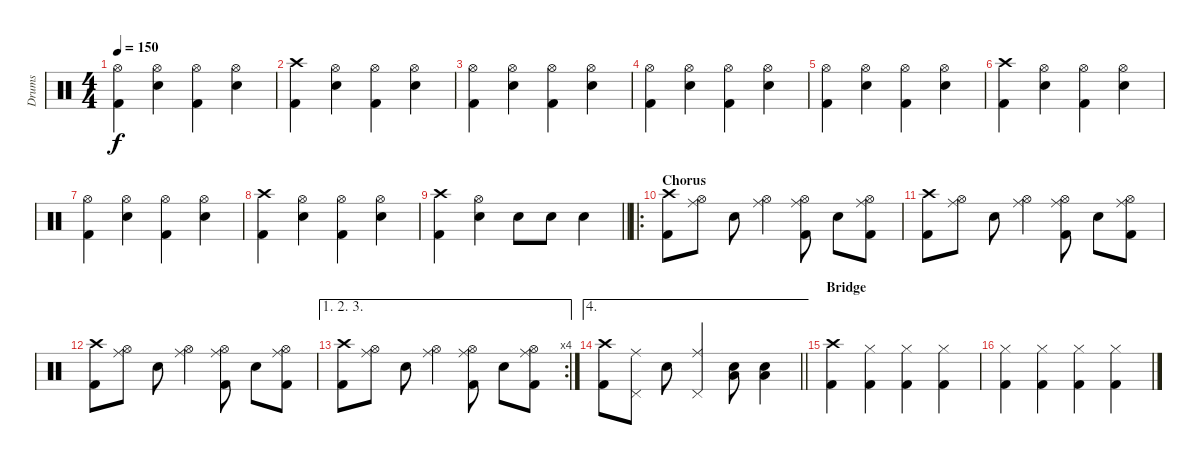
\track ("Drums" "Drums") {instrument percussion}
\staff {score}
\articulation defaults
\ts (4 4)
\tempo 150
\clef neutral
\ks c
("Hi-Hat (open)" "Kick (hit) 2").4{dy f} ("Hi-Hat (open)" "Electric Snare (hit)").4 ("Hi-Hat (open)" "Kick (hit) 2").4 ("Hi-Hat (open)" "Electric Snare (hit)").4 |
("Crash high (hit)" "Kick (hit) 2").4 ("Hi-Hat (open)" "Electric Snare (hit)").4 ("Hi-Hat (open)" "Kick (hit) 2").4 ("Hi-Hat (open)" "Electric Snare (hit)").4 |
("Hi-Hat (open)" "Kick (hit) 2").4 ("Hi-Hat (open)" "Electric Snare (hit)").4 ("Hi-Hat (open)" "Kick (hit) 2").4 ("Hi-Hat (open)" "Electric Snare (hit)").4 |
("Hi-Hat (open)" "Kick (hit) 2").4 ("Hi-Hat (open)" "Electric Snare (hit)").4 ("Hi-Hat (open)" "Kick (hit) 2").4 ("Hi-Hat (open)" "Electric Snare (hit)").4 |
("Hi-Hat (open)" "Kick (hit) 2").4 ("Hi-Hat (open)" "Electric Snare (hit)").4 ("Hi-Hat (open)" "Kick (hit) 2").4 ("Hi-Hat (open)" "Electric Snare (hit)").4 |
("Crash high (hit)" "Kick (hit) 2").4 ("Hi-Hat (open)" "Electric Snare (hit)").4 ("Hi-Hat (open)" "Kick (hit) 2").4 ("Hi-Hat (open)" "Electric Snare (hit)").4 |
("Hi-Hat (open)" "Kick (hit) 2").4 ("Hi-Hat (open)" "Electric Snare (hit)").4 ("Hi-Hat (open)" "Kick (hit) 2").4 ("Hi-Hat (open)" "Electric Snare (hit)").4 |
("Crash high (hit)" "Kick (hit) 2").4 ("Hi-Hat (open)" "Electric Snare (hit)").4 ("Hi-Hat (open)" "Kick (hit) 2").4 ("Hi-Hat (open)" "Electric Snare (hit)").4 |
\barLineRight lightlight
("Crash high (hit)" "Kick (hit) 2").4 ("Hi-Hat (open)" "Electric Snare (hit)").4 "Electric Snare (hit)".8 "Electric Snare (hit)".8 "Electric Snare (hit)".4 |
\ro
\section ("" "Chorus")
("Crash high (hit)" "Kick (hit) 2").8 ("Ride (middle)" "Hi-Hat (open)").8 "Electric Snare (hit)".8 ("Ride (middle)" "Hi-Hat (open)").4 ("Ride (middle)" "Hi-Hat (open)" "Kick (hit) 2").8 "Electric Snare (hit)".8 ("Ride (middle)" "Hi-Hat (open)" "Kick (hit) 2").8 |
("Crash high (hit)" "Kick (hit) 2").8 ("Ride (middle)" "Hi-Hat (open)").8 "Electric Snare (hit)".8 ("Ride (middle)" "Hi-Hat (open)").4 ("Ride (middle)" "Hi-Hat (open)" "Kick (hit) 2").8 "Electric Snare (hit)".8 ("Ride (middle)" "Hi-Hat (open)" "Kick (hit) 2").8 |
("Crash high (hit)" "Kick (hit) 2").8 ("Ride (middle)" "Hi-Hat (open)").8 "Electric Snare (hit)".8 ("Ride (middle)" "Hi-Hat (open)").4 ("Ride (middle)" "Hi-Hat (open)" "Kick (hit) 2").8 "Electric Snare (hit)".8 ("Ride (middle)" "Hi-Hat (open)" "Kick (hit) 2").8 |
\ae (1 2 3)
\rc 4
("Crash high (hit)" "Kick (hit) 2").8 ("Ride (middle)" "Hi-Hat (open)").8 "Electric Snare (hit)".8 ("Ride (middle)" "Hi-Hat (open)").4 ("Ride (middle)" "Hi-Hat (open)" "Kick (hit) 2").8 "Electric Snare (hit)".8 ("Ride (middle)" "Hi-Hat (open)" "Kick (hit) 2").8 |
\ae 4
\barLineRight lightlight
("Crash high (hit)" "Kick (hit) 2").8 ("Ride (middle)" "Pedal Hi-Hat (hit)").8 "Electric Snare (hit)".8 ("Ride (middle)" "Pedal Hi-Hat (hit)").4 ("Electric Snare (hit)" "Low Floor Tom (hit)").8 ("Electric Snare (hit)" "Low Floor Tom (hit)").4 |
\section ("" "Bridge")
("Crash high (hit)" "Kick (hit) 2").4 ("Hi-Hat (closed)" "Kick (hit) 2").4 ("Hi-Hat (closed)" "Kick (hit) 2").4 ("Hi-Hat (closed)" "Kick (hit) 2").4 |
("Hi-Hat (closed)" "Kick (hit) 2").4 ("Hi-Hat (closed)" "Kick (hit) 2").4 ("Hi-Hat (closed)" "Kick (hit) 2").4 ("Hi-Hat (closed)" "Kick (hit) 2").4
